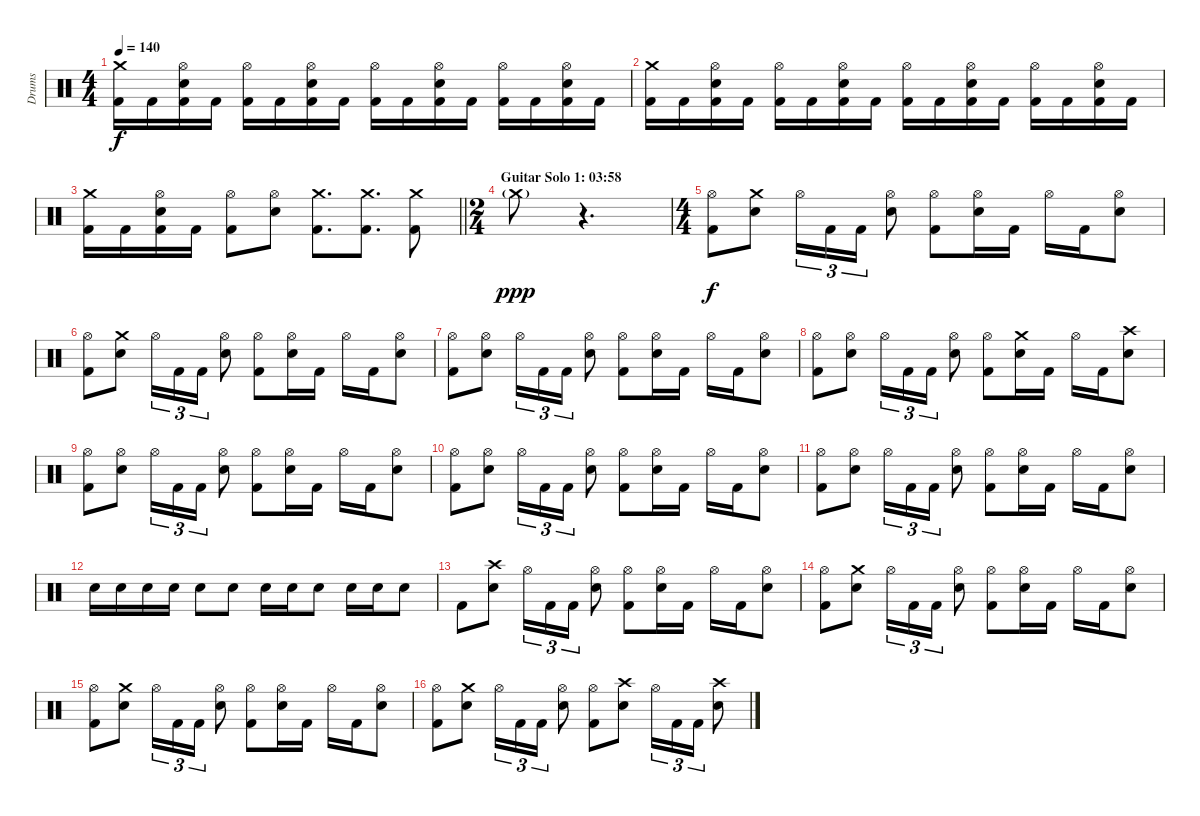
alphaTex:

\track ("Drums" "Drums") {instrument percussion}
\staff {score}
\articulation defaults
\ts (4 4)
\tempo 140
\clef neutral
\ks c
("Crash medium (hit)" "Kick (hit) 2").16{dy f} "Kick (hit) 2".16 ("Hi-Hat (open)" "Electric Snare (hit)" "Kick (hit) 2").16 "Kick (hit) 2".16 ("Hi-Hat (open)" "Kick (hit) 2").16 "Kick (hit) 2".16 ("Hi-Hat (open)" "Electric Snare (hit)" "Kick (hit) 2").16 "Kick (hit) 2".16 ("Hi-Hat (open)" "Kick (hit) 2").16 "Kick (hit) 2".16 ("Hi-Hat (open)" "Electric Snare (hit)" "Kick (hit) 2").16 "Kick (hit) 2".16 ("Hi-Hat (open)" "Kick (hit) 2").16 "Kick (hit) 2".16 ("Hi-Hat (open)" "Electric Snare (hit)" "Kick (hit) 2").16 "Kick (hit) 2".16 |
("Crash medium (hit)" "Kick (hit) 2").16 "Kick (hit) 2".16 ("Hi-Hat (open)" "Electric Snare (hit)" "Kick (hit) 2").16 "Kick (hit) 2".16 ("Hi-Hat (open)" "Kick (hit) 2").16 "Kick (hit) 2".16 ("Hi-Hat (open)" "Electric Snare (hit)" "Kick (hit) 2").16 "Kick (hit) 2".16 ("Hi-Hat (open)" "Kick (hit) 2").16 "Kick (hit) 2".16 ("Hi-Hat (open)" "Electric Snare (hit)" "Kick (hit) 2").16 "Kick (hit) 2".16 ("Hi-Hat (open)" "Kick (hit) 2").16 "Kick (hit) 2".16 ("Hi-Hat (open)" "Electric Snare (hit)" "Kick (hit) 2").16 "Kick (hit) 2".16 |
\barLineRight lightlight
("Crash medium (hit)" "Kick (hit) 2").16 "Kick (hit) 2".16 ("Hi-Hat (open)" "Electric Snare (hit)" "Kick (hit) 2").16 "Kick (hit) 2".16 ("Hi-Hat (open)" "Kick (hit) 2").8 ("Hi-Hat (open)" "Electric Snare (hit)").8 ("Crash medium (hit)" "Kick (hit) 2").8{d} ("Crash medium (hit)" "Kick (hit) 2").8{d} ("Crash medium (hit)" "Kick (hit) 2").8 |
\ts (2 4)
\section ("" "Guitar Solo 1: 03:58")
"Crash medium (hit)"{g}.8{dy ppp} r.4{d} |
\ts (4 4)
("Hi-Hat (open)" "Kick (hit) 2").8{dy f} ("Crash medium (hit)" "Electric Snare (hit)").8 "Hi-Hat (open)".16{tu (3 2)} "Kick (hit) 2".16{tu (3 2)} "Kick (hit) 2".16{tu (3 2)} ("Hi-Hat (open)" "Electric Snare (hit)").8 ("Hi-Hat (open)" "Kick (hit) 2").8 ("Hi-Hat (open)" "Electric Snare (hit)").16 "Kick (hit) 2".16 "Hi-Hat (open)".16 "Kick (hit) 2".16 ("Hi-Hat (open)" "Electric Snare (hit)").8 |
("Hi-Hat (open)" "Kick (hit) 2").8 ("Crash medium (hit)" "Electric Snare (hit)").8 "Hi-Hat (open)".16{tu (3 2)} "Kick (hit) 2".16{tu (3 2)} "Kick (hit) 2".16{tu (3 2)} ("Hi-Hat (open)" "Electric Snare (hit)").8 ("Hi-Hat (open)" "Kick (hit) 2").8 ("Hi-Hat (open)" "Electric Snare (hit)").16 "Kick (hit) 2".16 "Hi-Hat (open)".16 "Kick (hit) 2".16 ("Hi-Hat (open)" "Electric Snare (hit)").8 |
("Hi-Hat (open)" "Kick (hit) 2").8 ("Hi-Hat (open)" "Electric Snare (hit)").8 "Hi-Hat (open)".16{tu (3 2)} "Kick (hit) 2".16{tu (3 2)} "Kick (hit) 2".16{tu (3 2)} ("Hi-Hat (open)" "Electric Snare (hit)").8 ("Hi-Hat (open)" "Kick (hit) 2").8 ("Hi-Hat (open)" "Electric Snare (hit)").16 "Kick (hit) 2".16 "Hi-Hat (open)".16 "Kick (hit) 2".16 ("Hi-Hat (open)" "Electric Snare (hit)").8 |
("Hi-Hat (open)" "Kick (hit) 2").8 ("Hi-Hat (open)" "Electric Snare (hit)").8 "Hi-Hat (open)".16{tu (3 2)} "Kick (hit) 2".16{tu (3 2)} "Kick (hit) 2".16{tu (3 2)} ("Hi-Hat (open)" "Electric Snare (hit)").8 ("Hi-Hat (open)" "Kick (hit) 2").8 ("Crash medium (hit)" "Electric Snare (hit)").16 "Kick (hit) 2".16 "Hi-Hat (open)".16 "Kick (hit) 2".16 ("Crash high (hit)" "Electric Snare (hit)").8 |
("Hi-Hat (open)" "Kick (hit) 2").8 ("Hi-Hat (open)" "Electric Snare (hit)").8 "Hi-Hat (open)".16{tu (3 2)} "Kick (hit) 2".16{tu (3 2)} "Kick (hit) 2".16{tu (3 2)} ("Hi-Hat (open)" "Electric Snare (hit)").8 ("Hi-Hat (open)" "Kick (hit) 2").8 ("Hi-Hat (open)" "Electric Snare (hit)").16 "Kick (hit) 2".16 "Hi-Hat (open)".16 "Kick (hit) 2".16 ("Hi-Hat (open)" "Electric Snare (hit)").8 |
("Hi-Hat (open)" "Kick (hit) 2").8 ("Hi-Hat (open)" "Electric Snare (hit)").8 "Hi-Hat (open)".16{tu (3 2)} "Kick (hit) 2".16{tu (3 2)} "Kick (hit) 2".16{tu (3 2)} ("Hi-Hat (open)" "Electric Snare (hit)").8 ("Hi-Hat (open)" "Kick (hit) 2").8 ("Hi-Hat (open)" "Electric Snare (hit)").16 "Kick (hit) 2".16 "Hi-Hat (open)".16 "Kick (hit) 2".16 ("Hi-Hat (open)" "Electric Snare (hit)").8 |
("Hi-Hat (open)" "Kick (hit) 2").8 ("Hi-Hat (open)" "Electric Snare (hit)").8 "Hi-Hat (open)".16{tu (3 2)} "Kick (hit) 2".16{tu (3 2)} "Kick (hit) 2".16{tu (3 2)} ("Hi-Hat (open)" "Electric Snare (hit)").8 ("Hi-Hat (open)" "Kick (hit) 2").8 ("Hi-Hat (open)" "Electric Snare (hit)").16 "Kick (hit) 2".16 "Hi-Hat (open)".16 "Kick (hit) 2".16 ("Hi-Hat (open)" "Electric Snare (hit)").8 |
"Electric Snare (hit)".16 "Electric Snare (hit)".16 "Electric Snare (hit)".16 "Electric Snare (hit)".16 "Electric Snare (hit)".8 "Electric Snare (hit)".8 "Electric Snare (hit)".16 "Electric Snare (hit)".16 "Electric Snare (hit)".8 "Electric Snare (hit)".16 "Electric Snare (hit)".16 "Electric Snare (hit)".8 |
"Kick (hit) 2".8 ("Crash high (hit)" "Electric Snare (hit)").8 "Hi-Hat (open)".16{tu (3 2)} "Kick (hit) 2".16{tu (3 2)} "Kick (hit) 2".16{tu (3 2)} ("Hi-Hat (open)" "Electric Snare (hit)").8 ("Hi-Hat (open)" "Kick (hit) 2").8 ("Hi-Hat (open)" "Electric Snare (hit)").16 "Kick (hit) 2".16 "Hi-Hat (open)".16 "Kick (hit) 2".16 ("Hi-Hat (open)" "Electric Snare (hit)").8 |
("Hi-Hat (open)" "Kick (hit) 2").8 ("Crash medium (hit)" "Electric Snare (hit)").8 "Hi-Hat (open)".16{tu (3 2)} "Kick (hit) 2".16{tu (3 2)} "Kick (hit) 2".16{tu (3 2)} ("Hi-Hat (open)" "Electric Snare (hit)").8 ("Hi-Hat (open)" "Kick (hit) 2").8 ("Hi-Hat (open)" "Electric Snare (hit)").16 "Kick (hit) 2".16 "Hi-Hat (open)".16 "Kick (hit) 2".16 ("Hi-Hat (open)" "Electric Snare (hit)").8 |
("Hi-Hat (open)" "Kick (hit) 2").8 ("Crash medium (hit)" "Electric Snare (hit)").8 "Hi-Hat (open)".16{tu (3 2)} "Kick (hit) 2".16{tu (3 2)} "Kick (hit) 2".16{tu (3 2)} ("Hi-Hat (open)" "Electric Snare (hit)").8 ("Hi-Hat (open)" "Kick (hit) 2").8 ("Hi-Hat (open)" "Electric Snare (hit)").16 "Kick (hit) 2".16 "Hi-Hat (open)".16 "Kick (hit) 2".16 ("Hi-Hat (open)" "Electric Snare (hit)").8 |
("Hi-Hat (open)" "Kick (hit) 2").8 ("Crash medium (hit)" "Electric Snare (hit)").8 "Hi-Hat (open)".16{tu (3 2)} "Kick (hit) 2".16{tu (3 2)} "Kick (hit) 2".16{tu (3 2)} ("Hi-Hat (open)" "Electric Snare (hit)").8 ("Hi-Hat (open)" "Kick (hit) 2").8 ("Crash high (hit)" "Electric Snare (hit)").8 "Hi-Hat (open)".16{tu (3 2)} "Kick (hit) 2".16{tu (3 2)} "Kick (hit) 2".16{tu (3 2)} ("Crash high (hit)" "Electric Snare (hit)").8
